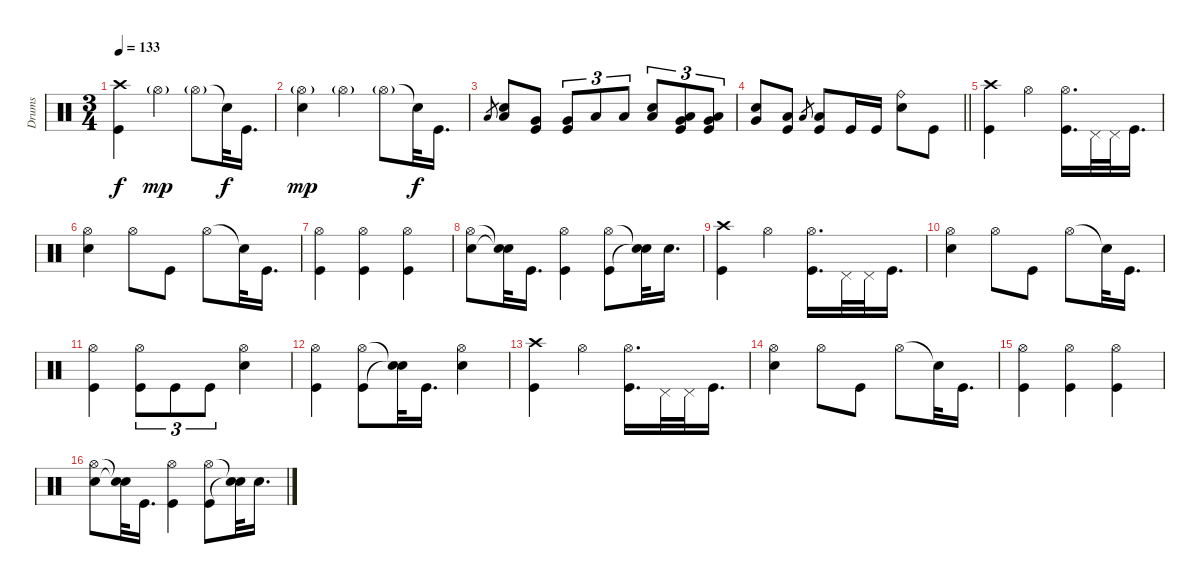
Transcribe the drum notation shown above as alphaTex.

\track ("Drums" "Drums") {instrument percussion}
\staff
\articulation defaults
\ts (3 4)
\tempo 133
\clef neutral
\ks c
("Crash high (hit)" "Kick (hit)").4{dy f} "Hi-Hat (open)"{g}.4{dy mp} "Hi-Hat (open)"{g}.8 "Snare (hit)"{t}.32{dy f} "Kick (hit)".16{d} |
("Hi-Hat (open)"{g} "Electric Snare (hit)").4{dy mp} "Hi-Hat (open)"{g}.4 "Hi-Hat (open)"{g}.8 "Snare (hit)"{t}.32{dy f} "Kick (hit)".16{d} |
"Low Tom (hit)".8{gr} ("Low Tom (hit)" "Electric Snare (hit)").8 ("Very Low Tom (hit)" "Kick (hit)").8 ("Very Low Tom (hit)" "Kick (hit)").8{tu (3 2)} "Low Floor Tom (hit)".8{tu (3 2)} "Low Floor Tom (hit)".8{tu (3 2)} ("Low Tom (hit)" "Electric Snare (hit)").8{tu (3 2)} ("Low Floor Tom (hit)" "Very Low Tom (hit)" "Kick (hit)").8{tu (3 2)} ("Low Floor Tom (hit)" "Very Low Tom (hit)" "Kick (hit)").8{tu (3 2)} |
\barLineRight lightlight
("Very Low Tom (hit)" "Electric Snare (hit)").8 ("Low Floor Tom (hit)" "Kick (hit)").8 "Low Floor Tom (hit)".8{gr} ("Low Floor Tom (hit)" "Kick (hit)").8 "Kick (hit)".16 "Kick (hit)".16 ("Ride (bell)" "Electric Snare (hit)").8 "Kick (hit)".8 |
\section ("" "")
("Crash high (hit)" "Kick (hit)").4 "Hi-Hat (open)".4 ("Hi-Hat (open)" "Kick (hit)").16{d} "Pedal Hi-Hat (hit)".32 "Pedal Hi-Hat (hit)".32 "Kick (hit)".16{d} |
("Hi-Hat (open)" "Electric Snare (hit)").4 "Hi-Hat (open)".8 "Kick (hit)".8 "Hi-Hat (open)".8 "Snare (hit)"{t}.32 "Kick (hit)".16{d} |
("Hi-Hat (open)" "Kick (hit)").4 ("Hi-Hat (open)" "Kick (hit)").4 ("Hi-Hat (open)" "Kick (hit)").4 |
("Hi-Hat (open)" "Electric Snare (hit)").8 ("Snare (hit)"{t} "Snare (hit)"{t}).32 "Kick (hit)".16{d} ("Hi-Hat (open)" "Kick (hit)").4 ("Hi-Hat (open)" "Kick (hit)").8 ("Snare (hit)"{t} "Snare (hit)"{t}).32 "Electric Snare (hit)".16{d} |
("Crash high (hit)" "Kick (hit)").4 "Hi-Hat (open)".4 ("Hi-Hat (open)" "Kick (hit)").16{d} "Pedal Hi-Hat (hit)".32 "Pedal Hi-Hat (hit)".32 "Kick (hit)".16{d} |
("Hi-Hat (open)" "Electric Snare (hit)").4 "Hi-Hat (open)".8 "Kick (hit)".8 "Hi-Hat (open)".8 "Snare (hit)"{t}.32 "Kick (hit)".16{d} |
("Hi-Hat (open)" "Kick (hit)").4 ("Hi-Hat (open)" "Kick (hit)").8{tu (3 2)} "Kick (hit)".8{tu (3 2)} "Kick (hit)".8{tu (3 2)} ("Hi-Hat (open)" "Electric Snare (hit)").4 |
("Hi-Hat (open)" "Kick (hit)").4 ("Hi-Hat (open)" "Kick (hit)").8 ("Snare (hit)"{t} "Snare (hit)"{t}).32 "Kick (hit)".16{d} ("Hi-Hat (open)" "Electric Snare (hit)").4 |
("Crash high (hit)" "Kick (hit)").4 "Hi-Hat (open)".4 ("Hi-Hat (open)" "Kick (hit)").16{d} "Pedal Hi-Hat (hit)".32 "Pedal Hi-Hat (hit)".32 "Kick (hit)".16{d} |
("Hi-Hat (open)" "Electric Snare (hit)").4 "Hi-Hat (open)".8 "Kick (hit)".8 "Hi-Hat (open)".8 "Snare (hit)"{t}.32 "Kick (hit)".16{d} |
("Hi-Hat (open)" "Kick (hit)").4 ("Hi-Hat (open)" "Kick (hit)").4 ("Hi-Hat (open)" "Kick (hit)").4 |
("Hi-Hat (open)" "Electric Snare (hit)").8 ("Snare (hit)"{t} "Snare (hit)"{t}).32 "Kick (hit)".16{d} ("Hi-Hat (open)" "Kick (hit)").4 ("Hi-Hat (open)" "Kick (hit)").8 ("Snare (hit)"{t} "Snare (hit)"{t}).32 "Electric Snare (hit)".16{d}
